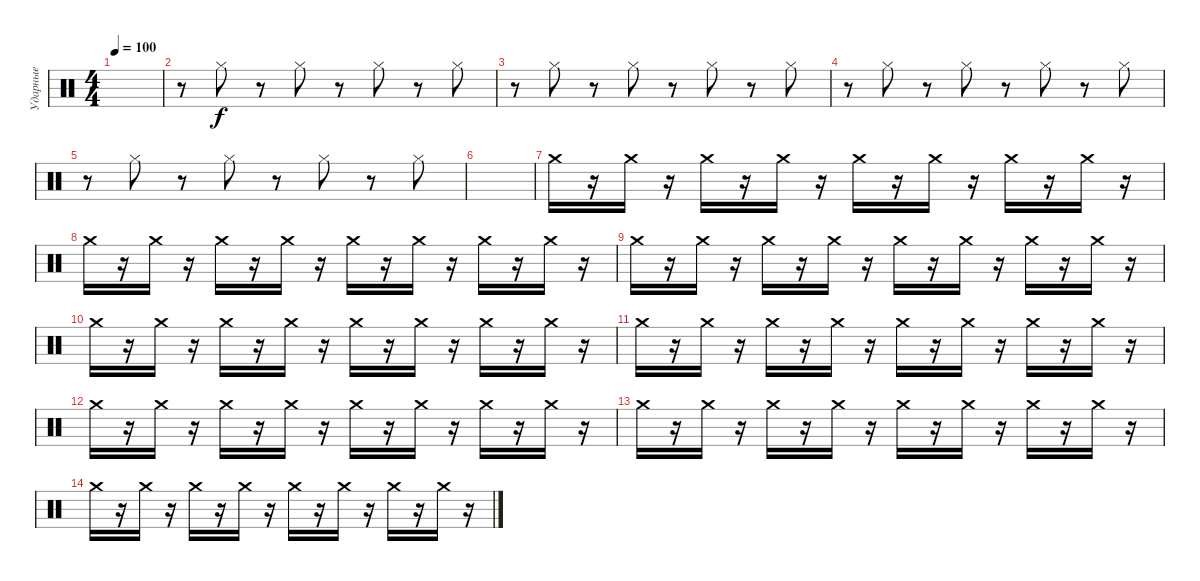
\track ("Ударные" "Ударные") {instrument percussion}
\staff {score}
\articulation defaults
\ts (4 4)
\tempo 100
\clef neutral
\ks c
|
r.8 "Hi-Hat (closed)".8 r.8 "Hi-Hat (closed)".8 r.8 "Hi-Hat (closed)".8 r.8 "Hi-Hat (closed)".8 |
r.8 "Hi-Hat (closed)".8 r.8 "Hi-Hat (closed)".8 r.8 "Hi-Hat (closed)".8 r.8 "Hi-Hat (closed)".8 |
r.8 "Hi-Hat (closed)".8 r.8 "Hi-Hat (closed)".8 r.8 "Hi-Hat (closed)".8 r.8 "Hi-Hat (closed)".8 |
r.8 "Hi-Hat (closed)".8 r.8 "Hi-Hat (closed)".8 r.8 "Hi-Hat (closed)".8 r.8 "Hi-Hat (closed)".8 |
|
"Crash medium (hit)".16 r.16 "Crash medium (hit)".16 r.16 "Crash medium (hit)".16 r.16 "Crash medium (hit)".16 r.16 "Crash medium (hit)".16 r.16 "Crash medium (hit)".16 r.16 "Crash medium (hit)".16 r.16 "Crash medium (hit)".16 r.16 |
"Crash medium (hit)".16 r.16 "Crash medium (hit)".16 r.16 "Crash medium (hit)".16 r.16 "Crash medium (hit)".16 r.16 "Crash medium (hit)".16 r.16 "Crash medium (hit)".16 r.16 "Crash medium (hit)".16 r.16 "Crash medium (hit)".16 r.16 |
"Crash medium (hit)".16 r.16 "Crash medium (hit)".16 r.16 "Crash medium (hit)".16 r.16 "Crash medium (hit)".16 r.16 "Crash medium (hit)".16 r.16 "Crash medium (hit)".16 r.16 "Crash medium (hit)".16 r.16 "Crash medium (hit)".16 r.16 |
"Crash medium (hit)".16 r.16 "Crash medium (hit)".16 r.16 "Crash medium (hit)".16 r.16 "Crash medium (hit)".16 r.16 "Crash medium (hit)".16 r.16 "Crash medium (hit)".16 r.16 "Crash medium (hit)".16 r.16 "Crash medium (hit)".16 r.16 |
"Crash medium (hit)".16 r.16 "Crash medium (hit)".16 r.16 "Crash medium (hit)".16 r.16 "Crash medium (hit)".16 r.16 "Crash medium (hit)".16 r.16 "Crash medium (hit)".16 r.16 "Crash medium (hit)".16 r.16 "Crash medium (hit)".16 r.16 |
"Crash medium (hit)".16 r.16 "Crash medium (hit)".16 r.16 "Crash medium (hit)".16 r.16 "Crash medium (hit)".16 r.16 "Crash medium (hit)".16 r.16 "Crash medium (hit)".16 r.16 "Crash medium (hit)".16 r.16 "Crash medium (hit)".16 r.16 |
"Crash medium (hit)".16 r.16 "Crash medium (hit)".16 r.16 "Crash medium (hit)".16 r.16 "Crash medium (hit)".16 r.16 "Crash medium (hit)".16 r.16 "Crash medium (hit)".16 r.16 "Crash medium (hit)".16 r.16 "Crash medium (hit)".16 r.16 |
"Crash medium (hit)".16 r.16 "Crash medium (hit)".16 r.16 "Crash medium (hit)".16 r.16 "Crash medium (hit)".16 r.16 "Crash medium (hit)".16 r.16 "Crash medium (hit)".16 r.16 "Crash medium (hit)".16 r.16 "Crash medium (hit)".16 r.16
